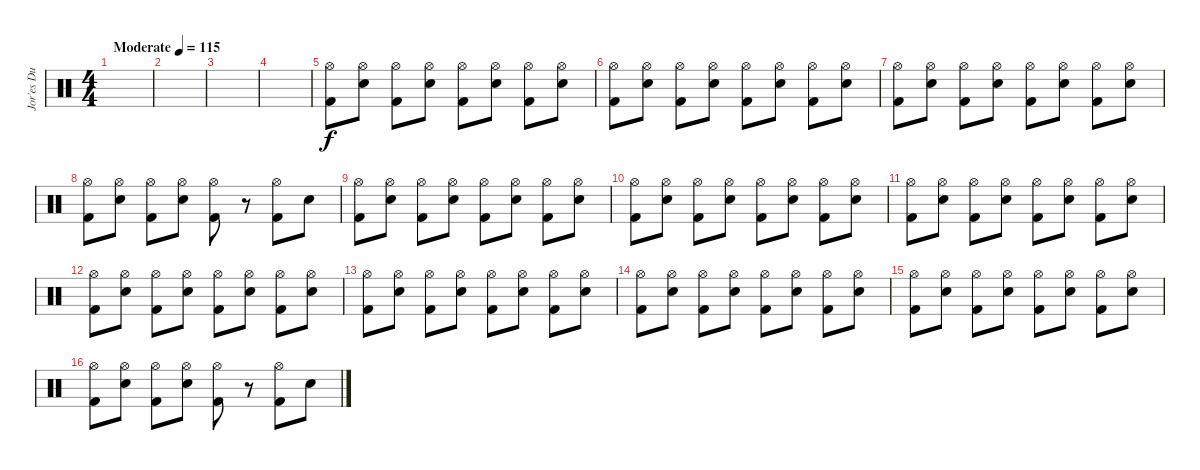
\track ("Jor'es Du True" "Jor'es Du ") {instrument percussion}
\staff {score}
\articulation defaults
\ts (4 4)
\tempo (115 "Moderate")
\clef neutral
\ks c
|
|
|
|
("Hi-Hat (open)" "Kick (hit) 2").8 ("Hi-Hat (open)" "Electric Snare (hit)").8 ("Hi-Hat (open)" "Kick (hit) 2").8 ("Hi-Hat (open)" "Electric Snare (hit)").8 ("Hi-Hat (open)" "Kick (hit) 2").8 ("Hi-Hat (open)" "Electric Snare (hit)").8 ("Hi-Hat (open)" "Kick (hit) 2").8 ("Hi-Hat (open)" "Electric Snare (hit)").8 |
("Hi-Hat (open)" "Kick (hit) 2").8 ("Hi-Hat (open)" "Electric Snare (hit)").8 ("Hi-Hat (open)" "Kick (hit) 2").8 ("Hi-Hat (open)" "Electric Snare (hit)").8 ("Hi-Hat (open)" "Kick (hit) 2").8 ("Hi-Hat (open)" "Electric Snare (hit)").8 ("Hi-Hat (open)" "Kick (hit) 2").8 ("Hi-Hat (open)" "Electric Snare (hit)").8 |
("Hi-Hat (open)" "Kick (hit) 2").8 ("Hi-Hat (open)" "Electric Snare (hit)").8 ("Hi-Hat (open)" "Kick (hit) 2").8 ("Hi-Hat (open)" "Electric Snare (hit)").8 ("Hi-Hat (open)" "Kick (hit) 2").8 ("Hi-Hat (open)" "Electric Snare (hit)").8 ("Hi-Hat (open)" "Kick (hit) 2").8 ("Hi-Hat (open)" "Electric Snare (hit)").8 |
("Hi-Hat (open)" "Kick (hit) 2").8 ("Hi-Hat (open)" "Electric Snare (hit)").8 ("Hi-Hat (open)" "Kick (hit) 2").8 ("Hi-Hat (open)" "Electric Snare (hit)").8 ("Hi-Hat (open)" "Kick (hit) 2").8 r.8 ("Hi-Hat (open)" "Kick (hit) 2").8 "Electric Snare (hit)".8 |
("Hi-Hat (open)" "Kick (hit) 2").8 ("Hi-Hat (open)" "Electric Snare (hit)").8 ("Hi-Hat (open)" "Kick (hit) 2").8 ("Hi-Hat (open)" "Electric Snare (hit)").8 ("Hi-Hat (open)" "Kick (hit) 2").8 ("Hi-Hat (open)" "Electric Snare (hit)").8 ("Hi-Hat (open)" "Kick (hit) 2").8 ("Hi-Hat (open)" "Electric Snare (hit)").8 |
("Hi-Hat (open)" "Kick (hit) 2").8 ("Hi-Hat (open)" "Electric Snare (hit)").8 ("Hi-Hat (open)" "Kick (hit) 2").8 ("Hi-Hat (open)" "Electric Snare (hit)").8 ("Hi-Hat (open)" "Kick (hit) 2").8 ("Hi-Hat (open)" "Electric Snare (hit)").8 ("Hi-Hat (open)" "Kick (hit) 2").8 ("Hi-Hat (open)" "Electric Snare (hit)").8 |
("Hi-Hat (open)" "Kick (hit) 2").8 ("Hi-Hat (open)" "Electric Snare (hit)").8 ("Hi-Hat (open)" "Kick (hit) 2").8 ("Hi-Hat (open)" "Electric Snare (hit)").8 ("Hi-Hat (open)" "Kick (hit) 2").8 ("Hi-Hat (open)" "Electric Snare (hit)").8 ("Hi-Hat (open)" "Kick (hit) 2").8 ("Hi-Hat (open)" "Electric Snare (hit)").8 |
("Hi-Hat (open)" "Kick (hit) 2").8 ("Hi-Hat (open)" "Electric Snare (hit)").8 ("Hi-Hat (open)" "Kick (hit) 2").8 ("Hi-Hat (open)" "Electric Snare (hit)").8 ("Hi-Hat (open)" "Kick (hit) 2").8 ("Hi-Hat (open)" "Electric Snare (hit)").8 ("Hi-Hat (open)" "Kick (hit) 2").8 ("Hi-Hat (open)" "Electric Snare (hit)").8 |
("Hi-Hat (open)" "Kick (hit) 2").8 ("Hi-Hat (open)" "Electric Snare (hit)").8 ("Hi-Hat (open)" "Kick (hit) 2").8 ("Hi-Hat (open)" "Electric Snare (hit)").8 ("Hi-Hat (open)" "Kick (hit) 2").8 ("Hi-Hat (open)" "Electric Snare (hit)").8 ("Hi-Hat (open)" "Kick (hit) 2").8 ("Hi-Hat (open)" "Electric Snare (hit)").8 |
("Hi-Hat (open)" "Kick (hit) 2").8 ("Hi-Hat (open)" "Electric Snare (hit)").8 ("Hi-Hat (open)" "Kick (hit) 2").8 ("Hi-Hat (open)" "Electric Snare (hit)").8 ("Hi-Hat (open)" "Kick (hit) 2").8 ("Hi-Hat (open)" "Electric Snare (hit)").8 ("Hi-Hat (open)" "Kick (hit) 2").8 ("Hi-Hat (open)" "Electric Snare (hit)").8 |
("Hi-Hat (open)" "Kick (hit) 2").8 ("Hi-Hat (open)" "Electric Snare (hit)").8 ("Hi-Hat (open)" "Kick (hit) 2").8 ("Hi-Hat (open)" "Electric Snare (hit)").8 ("Hi-Hat (open)" "Kick (hit) 2").8 ("Hi-Hat (open)" "Electric Snare (hit)").8 ("Hi-Hat (open)" "Kick (hit) 2").8 ("Hi-Hat (open)" "Electric Snare (hit)").8 |
("Hi-Hat (open)" "Kick (hit) 2").8 ("Hi-Hat (open)" "Electric Snare (hit)").8 ("Hi-Hat (open)" "Kick (hit) 2").8 ("Hi-Hat (open)" "Electric Snare (hit)").8 ("Hi-Hat (open)" "Kick (hit) 2").8 r.8 ("Hi-Hat (open)" "Kick (hit) 2").8 "Electric Snare (hit)".8
